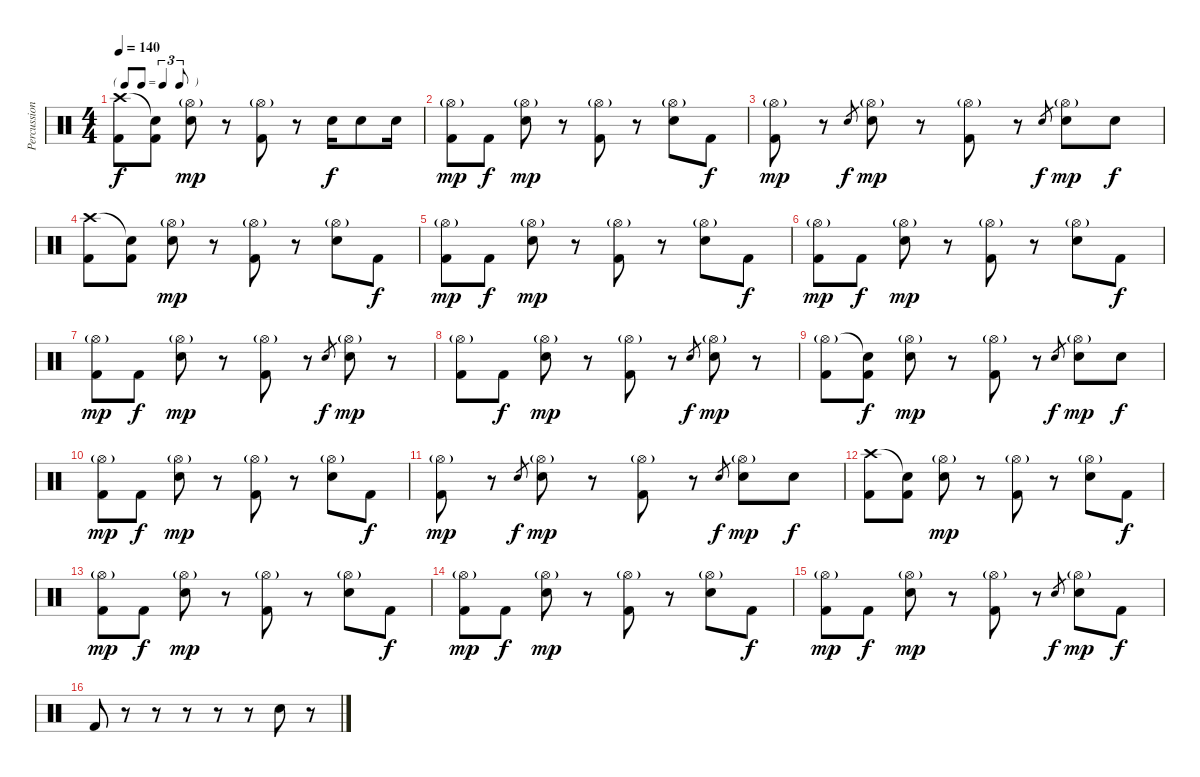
\track ("Percussion" "Percussion") {instrument percussion}
\staff {score}
\articulation defaults
\ts (4 4)
\tf triplet8th
\tempo 140
\clef neutral
\ks c
("Crash high (hit)" "Kick (hit) 2").8{dy f} ("Snare (hit)"{t} "Kick (hit) 2").8 ("Hi-Hat (open)"{g} "Snare (hit) 2").8{dy mp} r.8 ("Hi-Hat (open)"{g} "Kick (hit) 2").8 r.8 "Snare (hit) 2".16{dy f} "Snare (hit) 2".8 "Snare (hit) 2".16 |
("Hi-Hat (open)"{g} "Kick (hit) 2").8{dy mp} "Kick (hit) 2".8{dy f} ("Hi-Hat (open)"{g} "Snare (hit) 2").8{dy mp} r.8 ("Hi-Hat (open)"{g} "Kick (hit) 2").8 r.8 ("Hi-Hat (open)"{g} "Snare (hit) 2").8 "Kick (hit) 2".8{dy f} |
("Hi-Hat (open)"{g} "Kick (hit) 2").8{dy mp} r.8 "Snare (hit) 2".8{gr dy f} ("Hi-Hat (open)"{g} "Snare (hit) 2").8{dy mp} r.8 ("Hi-Hat (open)"{g} "Kick (hit) 2").8 r.8 "Snare (hit) 2".8{gr dy f} ("Hi-Hat (open)"{g} "Snare (hit) 2").8{dy mp} "Snare (hit) 2".8{dy f} |
("Crash high (hit)" "Kick (hit) 2").8 ("Snare (hit)"{t} "Kick (hit) 2").8 ("Hi-Hat (open)"{g} "Snare (hit) 2").8{dy mp} r.8 ("Hi-Hat (open)"{g} "Kick (hit) 2").8 r.8 ("Hi-Hat (open)"{g} "Snare (hit) 2").8 "Kick (hit) 2".8{dy f} |
("Hi-Hat (open)"{g} "Kick (hit) 2").8{dy mp} "Kick (hit) 2".8{dy f} ("Hi-Hat (open)"{g} "Snare (hit) 2").8{dy mp} r.8 ("Hi-Hat (open)"{g} "Kick (hit) 2").8 r.8 ("Hi-Hat (open)"{g} "Snare (hit) 2").8 "Kick (hit) 2".8{dy f} |
("Hi-Hat (open)"{g} "Kick (hit) 2").8{dy mp} "Kick (hit) 2".8{dy f} ("Hi-Hat (open)"{g} "Snare (hit) 2").8{dy mp} r.8 ("Hi-Hat (open)"{g} "Kick (hit) 2").8 r.8 ("Hi-Hat (open)"{g} "Snare (hit) 2").8 "Kick (hit) 2".8{dy f} |
("Hi-Hat (open)"{g} "Kick (hit) 2").8{dy mp} "Kick (hit) 2".8{dy f} ("Hi-Hat (open)"{g} "Snare (hit) 2").8{dy mp} r.8 ("Hi-Hat (open)"{g} "Kick (hit) 2").8 r.8 "Snare (hit) 2".8{gr dy f} ("Hi-Hat (open)"{g} "Snare (hit) 2").8{dy mp} r.8 |
("Hi-Hat (open)"{g} "Kick (hit) 2").8 "Kick (hit) 2".8{dy f} ("Hi-Hat (open)"{g} "Snare (hit) 2").8{dy mp} r.8 ("Hi-Hat (open)"{g} "Kick (hit) 2").8 r.8 "Snare (hit) 2".8{gr dy f} ("Hi-Hat (open)"{g} "Snare (hit) 2").8{dy mp} r.8 |
("Hi-Hat (open)"{g} "Kick (hit) 2").8 ("Snare (hit)"{t} "Kick (hit) 2").8{dy f} ("Hi-Hat (open)"{g} "Snare (hit) 2").8{dy mp} r.8 ("Hi-Hat (open)"{g} "Kick (hit) 2").8 r.8 "Snare (hit) 2".8{gr dy f} ("Hi-Hat (open)"{g} "Snare (hit) 2").8{dy mp} "Snare (hit) 2".8{dy f} |
("Hi-Hat (open)"{g} "Kick (hit) 2").8{dy mp} "Kick (hit) 2".8{dy f} ("Hi-Hat (open)"{g} "Snare (hit) 2").8{dy mp} r.8 ("Hi-Hat (open)"{g} "Kick (hit) 2").8 r.8 ("Hi-Hat (open)"{g} "Snare (hit) 2").8 "Kick (hit) 2".8{dy f} |
("Hi-Hat (open)"{g} "Kick (hit) 2").8{dy mp} r.8 "Snare (hit) 2".8{gr dy f} ("Hi-Hat (open)"{g} "Snare (hit) 2").8{dy mp} r.8 ("Hi-Hat (open)"{g} "Kick (hit) 2").8 r.8 "Snare (hit) 2".8{gr dy f} ("Hi-Hat (open)"{g} "Snare (hit) 2").8{dy mp} "Snare (hit) 2".8{dy f} |
("Crash high (hit)" "Kick (hit) 2").8 ("Snare (hit)"{t} "Kick (hit) 2").8 ("Hi-Hat (open)"{g} "Snare (hit) 2").8{dy mp} r.8 ("Hi-Hat (open)"{g} "Kick (hit) 2").8 r.8 ("Hi-Hat (open)"{g} "Snare (hit) 2").8 "Kick (hit) 2".8{dy f} |
("Hi-Hat (open)"{g} "Kick (hit) 2").8{dy mp} "Kick (hit) 2".8{dy f} ("Hi-Hat (open)"{g} "Snare (hit) 2").8{dy mp} r.8 ("Hi-Hat (open)"{g} "Kick (hit) 2").8 r.8 ("Hi-Hat (open)"{g} "Snare (hit) 2").8 "Kick (hit) 2".8{dy f} |
("Hi-Hat (open)"{g} "Kick (hit) 2").8{dy mp} "Kick (hit) 2".8{dy f} ("Hi-Hat (open)"{g} "Snare (hit) 2").8{dy mp} r.8 ("Hi-Hat (open)"{g} "Kick (hit) 2").8 r.8 ("Hi-Hat (open)"{g} "Snare (hit) 2").8 "Kick (hit) 2".8{dy f} |
("Hi-Hat (open)"{g} "Kick (hit) 2").8{dy mp} "Kick (hit) 2".8{dy f} ("Hi-Hat (open)"{g} "Snare (hit) 2").8{dy mp} r.8 ("Hi-Hat (open)"{g} "Kick (hit) 2").8 r.8 "Snare (hit) 2".8{gr dy f} ("Hi-Hat (open)"{g} "Snare (hit) 2").8{dy mp} "Kick (hit) 2".8{dy f} |
"Kick (hit) 2".8 r.8 r.8 r.8 r.8 r.8 "Snare (hit) 2".8 r.8
